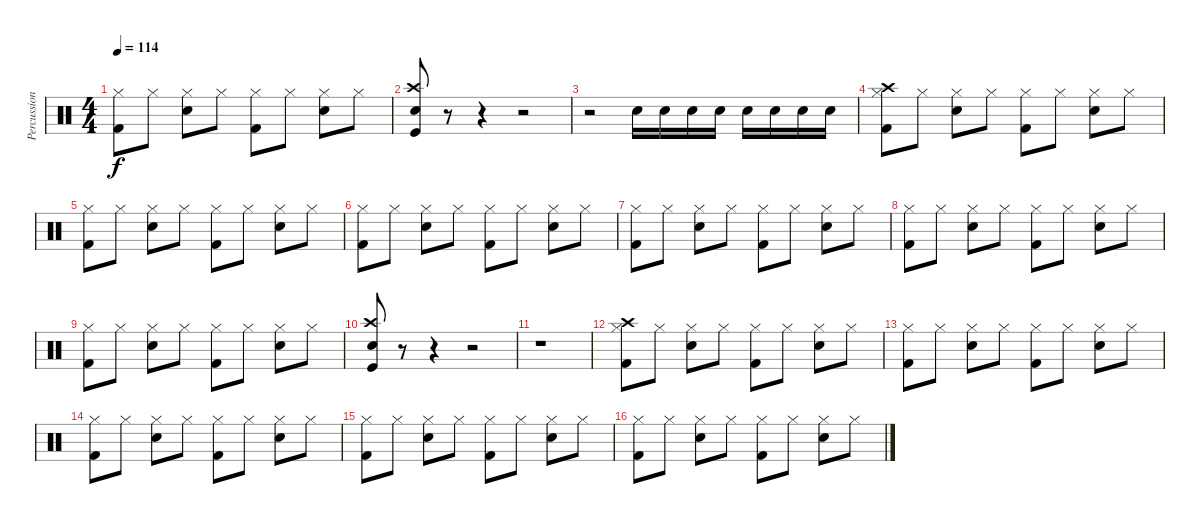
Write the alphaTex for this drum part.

\track ("Percussion" "Percussion") {instrument percussion}
\staff {score}
\articulation defaults
\ts (4 4)
\tempo 114
\clef neutral
\ks c
("Hi-Hat (closed)" "Kick (hit) 2").8{dy f} "Hi-Hat (closed)".8 ("Hi-Hat (closed)" "Snare (hit) 2").8 "Hi-Hat (closed)".8 ("Hi-Hat (closed)" "Kick (hit) 2").8 "Hi-Hat (closed)".8 ("Hi-Hat (closed)" "Snare (hit) 2").8 "Hi-Hat (closed)".8 |
("Crash high (hit)" "Snare (hit) 2" "Kick (hit)").8 r.8 r.4 r.2 |
r.2 "Snare (hit) 2".16 "Snare (hit) 2".16 "Snare (hit) 2".16 "Snare (hit) 2".16 "Snare (hit) 2".16 "Snare (hit) 2".16 "Snare (hit) 2".16 "Snare (hit) 2".16 |
("Crash high (hit)" "Hi-Hat (closed)" "Kick (hit) 2").8 "Hi-Hat (closed)".8 ("Hi-Hat (closed)" "Snare (hit) 2").8 "Hi-Hat (closed)".8 ("Hi-Hat (closed)" "Kick (hit) 2").8 "Hi-Hat (closed)".8 ("Hi-Hat (closed)" "Snare (hit) 2").8 "Hi-Hat (closed)".8 |
("Hi-Hat (closed)" "Kick (hit) 2").8 "Hi-Hat (closed)".8 ("Hi-Hat (closed)" "Snare (hit) 2").8 "Hi-Hat (closed)".8 ("Hi-Hat (closed)" "Kick (hit) 2").8 "Hi-Hat (closed)".8 ("Hi-Hat (closed)" "Snare (hit) 2").8 "Hi-Hat (closed)".8 |
("Hi-Hat (closed)" "Kick (hit) 2").8 "Hi-Hat (closed)".8 ("Hi-Hat (closed)" "Snare (hit) 2").8 "Hi-Hat (closed)".8 ("Hi-Hat (closed)" "Kick (hit) 2").8 "Hi-Hat (closed)".8 ("Hi-Hat (closed)" "Snare (hit) 2").8 "Hi-Hat (closed)".8 |
("Hi-Hat (closed)" "Kick (hit) 2").8 "Hi-Hat (closed)".8 ("Hi-Hat (closed)" "Snare (hit) 2").8 "Hi-Hat (closed)".8 ("Hi-Hat (closed)" "Kick (hit) 2").8 "Hi-Hat (closed)".8 ("Hi-Hat (closed)" "Snare (hit) 2").8 "Hi-Hat (closed)".8 |
("Hi-Hat (closed)" "Kick (hit) 2").8 "Hi-Hat (closed)".8 ("Hi-Hat (closed)" "Snare (hit) 2").8 "Hi-Hat (closed)".8 ("Hi-Hat (closed)" "Kick (hit) 2").8 "Hi-Hat (closed)".8 ("Hi-Hat (closed)" "Snare (hit) 2").8 "Hi-Hat (closed)".8 |
("Hi-Hat (closed)" "Kick (hit) 2").8 "Hi-Hat (closed)".8 ("Hi-Hat (closed)" "Snare (hit) 2").8 "Hi-Hat (closed)".8 ("Hi-Hat (closed)" "Kick (hit) 2").8 "Hi-Hat (closed)".8 ("Hi-Hat (closed)" "Snare (hit) 2").8 "Hi-Hat (closed)".8 |
("Crash high (hit)" "Snare (hit) 2" "Kick (hit)").8 r.8 r.4 r.2 |
r.1 |
("Crash high (hit)" "Hi-Hat (closed)" "Kick (hit) 2").8 "Hi-Hat (closed)".8 ("Hi-Hat (closed)" "Snare (hit) 2").8 "Hi-Hat (closed)".8 ("Hi-Hat (closed)" "Kick (hit) 2").8 "Hi-Hat (closed)".8 ("Hi-Hat (closed)" "Snare (hit) 2").8 "Hi-Hat (closed)".8 |
("Hi-Hat (closed)" "Kick (hit) 2").8 "Hi-Hat (closed)".8 ("Hi-Hat (closed)" "Snare (hit) 2").8 "Hi-Hat (closed)".8 ("Hi-Hat (closed)" "Kick (hit) 2").8 "Hi-Hat (closed)".8 ("Hi-Hat (closed)" "Snare (hit) 2").8 "Hi-Hat (closed)".8 |
("Hi-Hat (closed)" "Kick (hit) 2").8 "Hi-Hat (closed)".8 ("Hi-Hat (closed)" "Snare (hit) 2").8 "Hi-Hat (closed)".8 ("Hi-Hat (closed)" "Kick (hit) 2").8 "Hi-Hat (closed)".8 ("Hi-Hat (closed)" "Snare (hit) 2").8 "Hi-Hat (closed)".8 |
("Hi-Hat (closed)" "Kick (hit) 2").8 "Hi-Hat (closed)".8 ("Hi-Hat (closed)" "Snare (hit) 2").8 "Hi-Hat (closed)".8 ("Hi-Hat (closed)" "Kick (hit) 2").8 "Hi-Hat (closed)".8 ("Hi-Hat (closed)" "Snare (hit) 2").8 "Hi-Hat (closed)".8 |
("Hi-Hat (closed)" "Kick (hit) 2").8 "Hi-Hat (closed)".8 ("Hi-Hat (closed)" "Snare (hit) 2").8 "Hi-Hat (closed)".8 ("Hi-Hat (closed)" "Kick (hit) 2").8 "Hi-Hat (closed)".8 ("Hi-Hat (closed)" "Snare (hit) 2").8 "Hi-Hat (closed)".8
